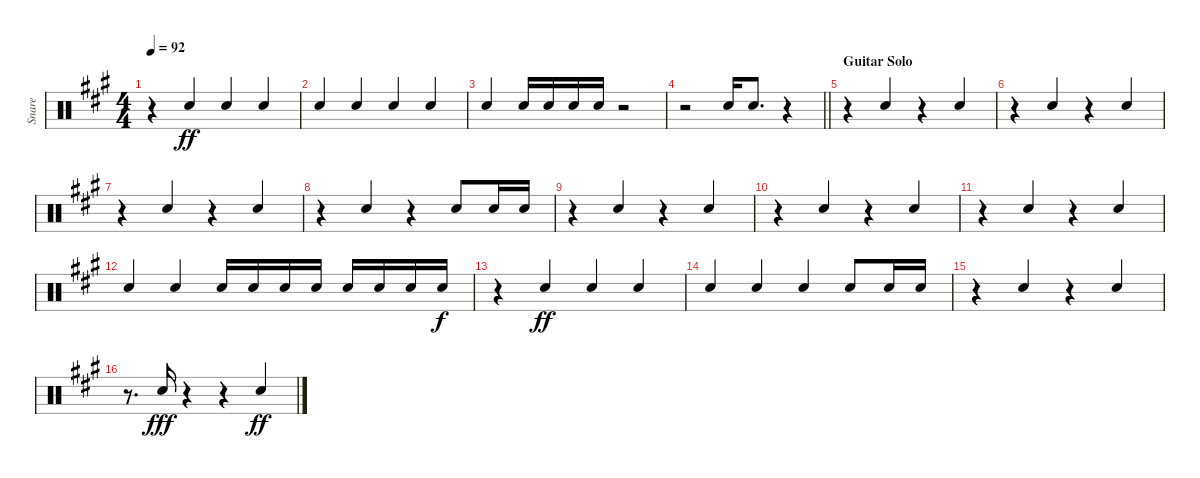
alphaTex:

\track ("Snare" "Snare") {instrument percussion}
\staff {score}
\articulation defaults
\ts (4 4)
\tempo 92
\clef neutral
\ks f#minor
r.4{dy ff} "Electric Snare (hit)".4{beam Up} "Electric Snare (hit)".4{beam Up beam merge} "Electric Snare (hit)".4{beam Up} |
"Electric Snare (hit)".4{beam Up} "Electric Snare (hit)".4{beam Up} "Electric Snare (hit)".4{beam Up beam merge} "Electric Snare (hit)".4{beam Up} |
"Electric Snare (hit)".4{beam Up} "Electric Snare (hit)".16{beam Up} "Electric Snare (hit)".16{beam Up} "Electric Snare (hit)".16{beam Up} "Electric Snare (hit)".16{beam Up} r.2 |
\barLineRight lightlight
r.2 "Electric Snare (hit)".16{beam Up} "Electric Snare (hit)".8{d beam Up} r.4 |
\section ("" "Guitar Solo")
r.4 "Electric Snare (hit)".4{beam Up} r.4{beam merge} "Electric Snare (hit)".4{beam Up} |
r.4 "Electric Snare (hit)".4{beam Up} r.4{beam merge} "Electric Snare (hit)".4{beam Up} |
r.4 "Electric Snare (hit)".4{beam Up} r.4{beam merge} "Electric Snare (hit)".4{beam Up} |
r.4 "Electric Snare (hit)".4{beam Up} r.4{beam merge} "Electric Snare (hit)".8{beam Up} "Electric Snare (hit)".16{beam Up} "Electric Snare (hit)".16{beam Up} |
r.4 "Electric Snare (hit)".4{beam Up} r.4{beam merge} "Electric Snare (hit)".4{beam Up} |
r.4 "Electric Snare (hit)".4{beam Up} r.4{beam merge} "Electric Snare (hit)".4{beam Up} |
r.4 "Electric Snare (hit)".4{beam Up} r.4{beam merge} "Electric Snare (hit)".4{beam Up} |
"Electric Snare (hit)".4{beam Up} "Electric Snare (hit)".4{beam Up} "Electric Snare (hit)".16{beam Up} "Electric Snare (hit)".16{beam Up} "Electric Snare (hit)".16{beam Up} "Electric Snare (hit)".16{beam Up} "Electric Snare (hit)".16{beam Up} "Electric Snare (hit)".16{beam Up} "Electric Snare (hit)".16{beam Up} "Electric Snare (hit)".16{dy f beam Up} |
r.4 "Electric Snare (hit)".4{dy ff beam Up} "Electric Snare (hit)".4{beam Up beam merge} "Electric Snare (hit)".4{beam Up} |
"Electric Snare (hit)".4{beam Up} "Electric Snare (hit)".4{beam Up} "Electric Snare (hit)".4{beam Up} "Electric Snare (hit)".8{beam Up} "Electric Snare (hit)".16{beam Up} "Electric Snare (hit)".16{beam Up} |
r.4 "Electric Snare (hit)".4{beam Up} r.4{beam merge} "Electric Snare (hit)".4{beam Up} |
r.8{d} "Electric Snare (hit)".16{dy fff beam Up} r.4 r.4{beam merge} "Electric Snare (hit)".4{dy ff beam Up}
